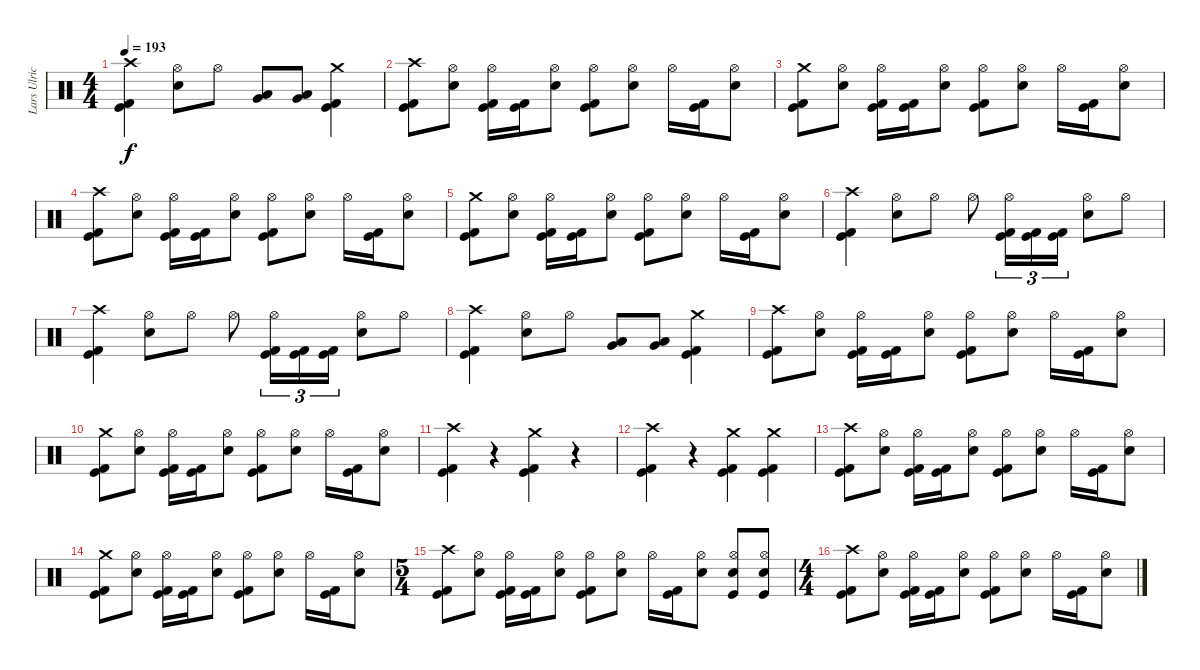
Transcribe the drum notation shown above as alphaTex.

\track ("Lars Ulrich" "Lars Ulric") {instrument percussion}
\staff {score}
\articulation defaults
\ts (4 4)
\tempo 193
\clef neutral
\ks c
("Crash high (hit)" "Kick (hit) 2" "Kick (hit)").4{dy f} ("Hi-Hat (open)" "Electric Snare (hit)").8 "Hi-Hat (open)".8 ("Low Tom (hit)" "Very Low Tom (hit)").8 ("Low Tom (hit)" "Very Low Tom (hit)").8 ("Crash medium (hit)" "Kick (hit) 2" "Kick (hit)").4 |
("Crash high (hit)" "Kick (hit) 2" "Kick (hit)").8 ("Hi-Hat (open)" "Electric Snare (hit)").8 ("Hi-Hat (open)" "Kick (hit) 2" "Kick (hit)").16 ("Kick (hit) 2" "Kick (hit)").16 ("Hi-Hat (open)" "Electric Snare (hit)").8 ("Hi-Hat (open)" "Kick (hit) 2" "Kick (hit)").8 ("Hi-Hat (open)" "Electric Snare (hit)").8 "Hi-Hat (open)".16 ("Kick (hit) 2" "Kick (hit)").16 ("Hi-Hat (open)" "Electric Snare (hit)").8 |
("Crash medium (hit)" "Kick (hit) 2" "Kick (hit)").8 ("Hi-Hat (open)" "Electric Snare (hit)").8 ("Hi-Hat (open)" "Kick (hit) 2" "Kick (hit)").16 ("Kick (hit) 2" "Kick (hit)").16 ("Hi-Hat (open)" "Electric Snare (hit)").8 ("Hi-Hat (open)" "Kick (hit) 2" "Kick (hit)").8 ("Hi-Hat (open)" "Electric Snare (hit)").8 "Hi-Hat (open)".16 ("Kick (hit) 2" "Kick (hit)").16 ("Hi-Hat (open)" "Electric Snare (hit)").8 |
("Crash high (hit)" "Kick (hit) 2" "Kick (hit)").8 ("Hi-Hat (open)" "Electric Snare (hit)").8 ("Hi-Hat (open)" "Kick (hit) 2" "Kick (hit)").16 ("Kick (hit) 2" "Kick (hit)").16 ("Hi-Hat (open)" "Electric Snare (hit)").8 ("Hi-Hat (open)" "Kick (hit) 2" "Kick (hit)").8 ("Hi-Hat (open)" "Electric Snare (hit)").8 "Hi-Hat (open)".16 ("Kick (hit) 2" "Kick (hit)").16 ("Hi-Hat (open)" "Electric Snare (hit)").8 |
("Crash medium (hit)" "Kick (hit) 2" "Kick (hit)").8 ("Hi-Hat (open)" "Electric Snare (hit)").8 ("Hi-Hat (open)" "Kick (hit) 2" "Kick (hit)").16 ("Kick (hit) 2" "Kick (hit)").16 ("Hi-Hat (open)" "Electric Snare (hit)").8 ("Hi-Hat (open)" "Kick (hit) 2" "Kick (hit)").8 ("Hi-Hat (open)" "Electric Snare (hit)").8 "Hi-Hat (open)".16 ("Kick (hit) 2" "Kick (hit)").16 ("Hi-Hat (open)" "Electric Snare (hit)").8 |
("Crash high (hit)" "Kick (hit) 2" "Kick (hit)").4 ("Hi-Hat (open)" "Electric Snare (hit)").8 "Hi-Hat (open)".8 "Hi-Hat (open)".8 ("Hi-Hat (open)" "Kick (hit) 2" "Kick (hit)").16{tu (3 2)} ("Kick (hit) 2" "Kick (hit)").16{tu (3 2)} ("Kick (hit) 2" "Kick (hit)").16{tu (3 2)} ("Hi-Hat (open)" "Electric Snare (hit)").8 "Hi-Hat (open)".8 |
("Crash high (hit)" "Kick (hit) 2" "Kick (hit)").4 ("Hi-Hat (open)" "Electric Snare (hit)").8 "Hi-Hat (open)".8 "Hi-Hat (open)".8 ("Hi-Hat (open)" "Kick (hit) 2" "Kick (hit)").16{tu (3 2)} ("Kick (hit) 2" "Kick (hit)").16{tu (3 2)} ("Kick (hit) 2" "Kick (hit)").16{tu (3 2)} ("Hi-Hat (open)" "Electric Snare (hit)").8 "Hi-Hat (open)".8 |
("Crash high (hit)" "Kick (hit) 2" "Kick (hit)").4 ("Hi-Hat (open)" "Electric Snare (hit)").8 "Hi-Hat (open)".8 ("Low Tom (hit)" "Very Low Tom (hit)").8 ("Low Tom (hit)" "Very Low Tom (hit)").8 ("Crash medium (hit)" "Kick (hit) 2" "Kick (hit)").4 |
("Crash high (hit)" "Kick (hit) 2" "Kick (hit)").8 ("Hi-Hat (open)" "Electric Snare (hit)").8 ("Hi-Hat (open)" "Kick (hit) 2" "Kick (hit)").16 ("Kick (hit) 2" "Kick (hit)").16 ("Hi-Hat (open)" "Electric Snare (hit)").8 ("Hi-Hat (open)" "Kick (hit) 2" "Kick (hit)").8 ("Hi-Hat (open)" "Electric Snare (hit)").8 "Hi-Hat (open)".16 ("Kick (hit) 2" "Kick (hit)").16 ("Hi-Hat (open)" "Electric Snare (hit)").8 |
("Crash medium (hit)" "Kick (hit) 2" "Kick (hit)").8 ("Hi-Hat (open)" "Electric Snare (hit)").8 ("Hi-Hat (open)" "Kick (hit) 2" "Kick (hit)").16 ("Kick (hit) 2" "Kick (hit)").16 ("Hi-Hat (open)" "Electric Snare (hit)").8 ("Hi-Hat (open)" "Kick (hit) 2" "Kick (hit)").8 ("Hi-Hat (open)" "Electric Snare (hit)").8 "Hi-Hat (open)".16 ("Kick (hit) 2" "Kick (hit)").16 ("Hi-Hat (open)" "Electric Snare (hit)").8 |
("Crash high (hit)" "Kick (hit) 2" "Kick (hit)").4 r.4 ("Crash medium (hit)" "Kick (hit) 2" "Kick (hit)").4 r.4 |
("Crash high (hit)" "Kick (hit) 2" "Kick (hit)").4 r.4 ("Crash medium (hit)" "Kick (hit) 2" "Kick (hit)").4 ("Crash medium (hit)" "Kick (hit) 2" "Kick (hit)").4 |
("Crash high (hit)" "Kick (hit) 2" "Kick (hit)").8 ("Hi-Hat (open)" "Electric Snare (hit)").8 ("Hi-Hat (open)" "Kick (hit) 2" "Kick (hit)").16 ("Kick (hit) 2" "Kick (hit)").16 ("Hi-Hat (open)" "Electric Snare (hit)").8 ("Hi-Hat (open)" "Kick (hit) 2" "Kick (hit)").8 ("Hi-Hat (open)" "Electric Snare (hit)").8 "Hi-Hat (open)".16 ("Kick (hit) 2" "Kick (hit)").16 ("Hi-Hat (open)" "Electric Snare (hit)").8 |
("Crash medium (hit)" "Kick (hit) 2" "Kick (hit)").8 ("Hi-Hat (open)" "Electric Snare (hit)").8 ("Hi-Hat (open)" "Kick (hit) 2" "Kick (hit)").16 ("Kick (hit) 2" "Kick (hit)").16 ("Hi-Hat (open)" "Electric Snare (hit)").8 ("Hi-Hat (open)" "Kick (hit) 2" "Kick (hit)").8 ("Hi-Hat (open)" "Electric Snare (hit)").8 "Hi-Hat (open)".16 ("Kick (hit) 2" "Kick (hit)").16 ("Hi-Hat (open)" "Electric Snare (hit)").8 |
\ts (5 4)
("Crash high (hit)" "Kick (hit) 2" "Kick (hit)").8 ("Hi-Hat (open)" "Electric Snare (hit)").8 ("Hi-Hat (open)" "Kick (hit) 2" "Kick (hit)").16 ("Kick (hit) 2" "Kick (hit)").16 ("Hi-Hat (open)" "Electric Snare (hit)").8 ("Hi-Hat (open)" "Kick (hit) 2" "Kick (hit)").8 ("Hi-Hat (open)" "Electric Snare (hit)").8 "Hi-Hat (open)".16 ("Kick (hit) 2" "Kick (hit)").16 ("Hi-Hat (open)" "Electric Snare (hit)").8 ("Hi-Hat (open)" "Electric Snare (hit)" "Kick (hit)").8 ("Hi-Hat (open)" "Electric Snare (hit)" "Kick (hit)").8 |
\ts (4 4)
("Crash high (hit)" "Kick (hit) 2" "Kick (hit)").8 ("Hi-Hat (open)" "Electric Snare (hit)").8 ("Hi-Hat (open)" "Kick (hit) 2" "Kick (hit)").16 ("Kick (hit) 2" "Kick (hit)").16 ("Hi-Hat (open)" "Electric Snare (hit)").8 ("Hi-Hat (open)" "Kick (hit) 2" "Kick (hit)").8 ("Hi-Hat (open)" "Electric Snare (hit)").8 "Hi-Hat (open)".16 ("Kick (hit) 2" "Kick (hit)").16 ("Hi-Hat (open)" "Electric Snare (hit)").8
